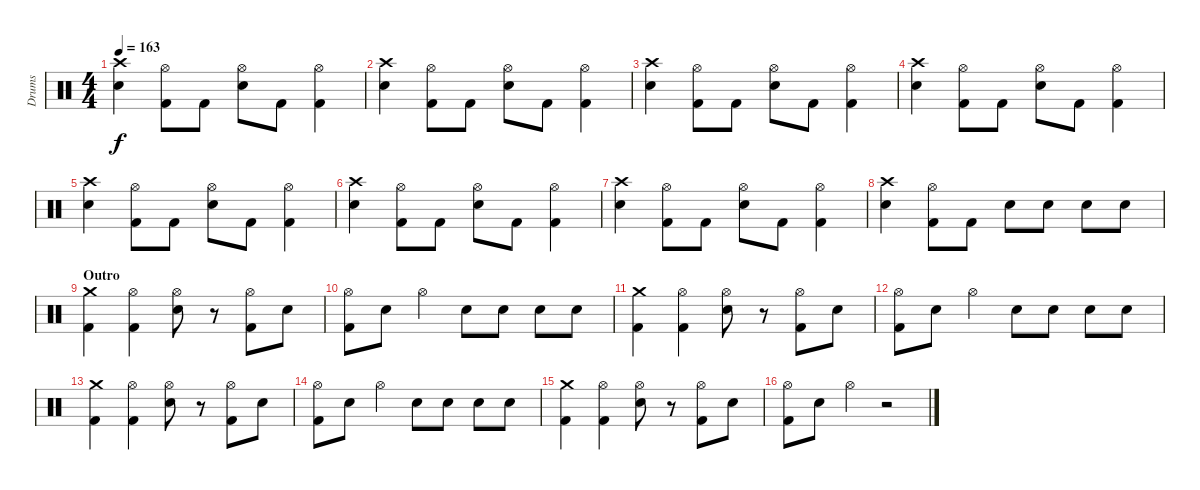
\track ("Drums" "Drums") {instrument percussion}
\staff {score}
\articulation defaults
\ts (4 4)
\tempo 163
\clef neutral
\ks c
("Crash high (hit)" "Snare (hit) 2").4{dy f} ("Hi-Hat (open)" "Kick (hit) 2").8 "Kick (hit) 2".8 ("Hi-Hat (open)" "Snare (hit) 2").8 "Kick (hit) 2".8 ("Hi-Hat (open)" "Kick (hit) 2").4 |
("Crash high (hit)" "Snare (hit) 2").4 ("Hi-Hat (open)" "Kick (hit) 2").8 "Kick (hit) 2".8 ("Hi-Hat (open)" "Snare (hit) 2").8 "Kick (hit) 2".8 ("Hi-Hat (open)" "Kick (hit) 2").4 |
("Crash high (hit)" "Snare (hit) 2").4 ("Hi-Hat (open)" "Kick (hit) 2").8 "Kick (hit) 2".8 ("Hi-Hat (open)" "Snare (hit) 2").8 "Kick (hit) 2".8 ("Hi-Hat (open)" "Kick (hit) 2").4 |
("Crash high (hit)" "Snare (hit) 2").4 ("Hi-Hat (open)" "Kick (hit) 2").8 "Kick (hit) 2".8 ("Hi-Hat (open)" "Snare (hit) 2").8 "Kick (hit) 2".8 ("Hi-Hat (open)" "Kick (hit) 2").4 |
("Crash high (hit)" "Snare (hit) 2").4 ("Hi-Hat (open)" "Kick (hit) 2").8 "Kick (hit) 2".8 ("Hi-Hat (open)" "Snare (hit) 2").8 "Kick (hit) 2".8 ("Hi-Hat (open)" "Kick (hit) 2").4 |
("Crash high (hit)" "Snare (hit) 2").4 ("Hi-Hat (open)" "Kick (hit) 2").8 "Kick (hit) 2".8 ("Hi-Hat (open)" "Snare (hit) 2").8 "Kick (hit) 2".8 ("Hi-Hat (open)" "Kick (hit) 2").4 |
("Crash high (hit)" "Snare (hit) 2").4 ("Hi-Hat (open)" "Kick (hit) 2").8 "Kick (hit) 2".8 ("Hi-Hat (open)" "Snare (hit) 2").8 "Kick (hit) 2".8 ("Hi-Hat (open)" "Kick (hit) 2").4 |
("Crash high (hit)" "Snare (hit) 2").4 ("Hi-Hat (open)" "Kick (hit) 2").8 "Kick (hit) 2".8 "Snare (hit) 2".8 "Snare (hit) 2".8 "Snare (hit) 2".8 "Snare (hit) 2".8 |
\section ("" "Outro")
("Crash medium (hit)" "Kick (hit) 2").4 ("Hi-Hat (open)" "Kick (hit) 2").4 ("Hi-Hat (open)" "Snare (hit) 2").8 r.8 ("Hi-Hat (open)" "Kick (hit) 2").8 "Snare (hit) 2".8 |
("Hi-Hat (open)" "Kick (hit) 2").8 "Snare (hit) 2".8 "Hi-Hat (open)".4 "Snare (hit) 2".8 "Snare (hit) 2".8 "Snare (hit) 2".8 "Snare (hit) 2".8 |
("Crash medium (hit)" "Kick (hit) 2").4 ("Hi-Hat (open)" "Kick (hit) 2").4 ("Hi-Hat (open)" "Snare (hit) 2").8 r.8 ("Hi-Hat (open)" "Kick (hit) 2").8 "Snare (hit) 2".8 |
("Hi-Hat (open)" "Kick (hit) 2").8 "Snare (hit) 2".8 "Hi-Hat (open)".4 "Snare (hit) 2".8 "Snare (hit) 2".8 "Snare (hit) 2".8 "Snare (hit) 2".8 |
("Crash medium (hit)" "Kick (hit) 2").4 ("Hi-Hat (open)" "Kick (hit) 2").4 ("Hi-Hat (open)" "Snare (hit) 2").8 r.8 ("Hi-Hat (open)" "Kick (hit) 2").8 "Snare (hit) 2".8 |
("Hi-Hat (open)" "Kick (hit) 2").8 "Snare (hit) 2".8 "Hi-Hat (open)".4 "Snare (hit) 2".8 "Snare (hit) 2".8 "Snare (hit) 2".8 "Snare (hit) 2".8 |
("Crash medium (hit)" "Kick (hit) 2").4 ("Hi-Hat (open)" "Kick (hit) 2").4 ("Hi-Hat (open)" "Snare (hit) 2").8 r.8 ("Hi-Hat (open)" "Kick (hit) 2").8 "Snare (hit) 2".8 |
("Hi-Hat (open)" "Kick (hit) 2").8 "Snare (hit) 2".8 "Hi-Hat (open)".4 r.2
